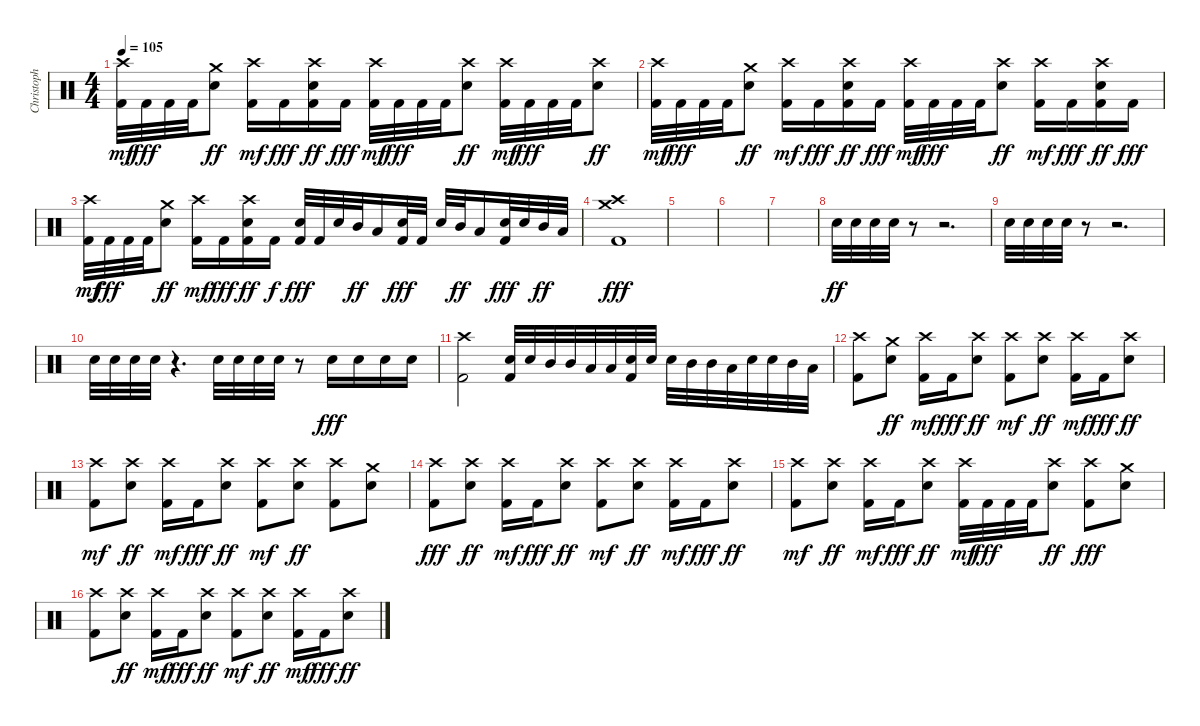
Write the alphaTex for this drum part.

\track ("Christoph \"Doom\" Schneider" "Christoph ") {instrument percussion}
\staff {score}
\articulation defaults
\ts (4 4)
\tempo 105
\clef neutral
\ks c
("Kick (hit) 2" "Crash high (hit)").32{dy mf} "Kick (hit) 2".32{dy fff} "Kick (hit) 2".32 "Kick (hit) 2".32 ("Crash medium (hit)" "Electric Snare (hit)").8{dy ff} ("Kick (hit) 2" "Crash high (hit)").16{dy mf} "Kick (hit) 2".16{dy fff} ("Kick (hit) 2" "Crash high (hit)" "Electric Snare (hit)").16{dy ff} "Kick (hit) 2".16{dy fff} ("Kick (hit) 2" "Crash high (hit)").32{dy mf} "Kick (hit) 2".32{dy fff} "Kick (hit) 2".32 "Kick (hit) 2".32 ("Crash high (hit)" "Electric Snare (hit)").8{dy ff} ("Kick (hit) 2" "Crash high (hit)").32{dy mf} "Kick (hit) 2".32{dy fff} "Kick (hit) 2".32 "Kick (hit) 2".32 ("Crash high (hit)" "Electric Snare (hit)").8{dy ff} |
("Kick (hit) 2" "Crash high (hit)").32{dy mf} "Kick (hit) 2".32{dy fff} "Kick (hit) 2".32 "Kick (hit) 2".32 ("Crash medium (hit)" "Electric Snare (hit)").8{dy ff} ("Kick (hit) 2" "Crash high (hit)").16{dy mf} "Kick (hit) 2".16{dy fff} ("Kick (hit) 2" "Crash high (hit)" "Electric Snare (hit)").16{dy ff} "Kick (hit) 2".16{dy fff} ("Kick (hit) 2" "Crash high (hit)").32{dy mf} "Kick (hit) 2".32{dy fff} "Kick (hit) 2".32 "Kick (hit) 2".32 ("Crash high (hit)" "Electric Snare (hit)").8{dy ff} ("Kick (hit) 2" "Crash high (hit)").16{dy mf} "Kick (hit) 2".16{dy fff} ("Kick (hit) 2" "Crash high (hit)" "Electric Snare (hit)").16{dy ff} "Kick (hit) 2".16{dy fff} |
("Kick (hit) 2" "Crash high (hit)").32{dy mf} "Kick (hit) 2".32{dy fff} "Kick (hit) 2".32 "Kick (hit) 2".32 ("Crash medium (hit)" "Electric Snare (hit)").8{dy ff} ("Kick (hit) 2" "Crash high (hit)").16{dy mf} "Kick (hit) 2".16{dy fff} ("Kick (hit) 2" "Crash high (hit)" "Electric Snare (hit)").16{dy ff} "Kick (hit) 2".16{dy f} ("Kick (hit) 2" "Electric Snare (hit)").32{dy fff} "Kick (hit) 2".32 "Electric Snare (hit)".32 "Mid Tom (hit)".32{dy ff} "Low Tom (hit)".16 ("Kick (hit) 2" "Electric Snare (hit)").32{dy fff} "Kick (hit) 2".32 "Electric Snare (hit)".32 "Mid Tom (hit)".32{dy ff} "Low Tom (hit)".16 ("Kick (hit) 2" "Electric Snare (hit)").32{dy fff} "Electric Snare (hit)".32 "Mid Tom (hit)".32{dy ff} "Low Tom (hit)".32 |
("Kick (hit) 2" "Crash medium (hit)" "Crash high (hit)").1{dy fff} |
|
|
|
"Electric Snare (hit)".32{dy ff} "Electric Snare (hit)".32 "Electric Snare (hit)".32 "Electric Snare (hit)".32 r.8 r.2{d} |
"Electric Snare (hit)".32 "Electric Snare (hit)".32 "Electric Snare (hit)".32 "Electric Snare (hit)".32 r.8 r.2{d} |
"Electric Snare (hit)".32 "Electric Snare (hit)".32 "Electric Snare (hit)".32 "Electric Snare (hit)".32 r.4{d} "Electric Snare (hit)".32 "Electric Snare (hit)".32 "Electric Snare (hit)".32 "Electric Snare (hit)".32 r.8 "Electric Snare (hit)".16{dy fff} "Electric Snare (hit)".16 "Electric Snare (hit)".16 "Electric Snare (hit)".16 |
("Kick (hit) 2" "Crash high (hit)").2 ("Kick (hit) 2" "Electric Snare (hit)").32{volume 14} "Electric Snare (hit)".32 "Mid Tom (hit)".32 "Mid Tom (hit)".32 "Low Tom (hit)".32 "Low Tom (hit)".32 ("Kick (hit) 2" "Electric Snare (hit)").32 "Electric Snare (hit)".32 "Electric Snare (hit)".32 "Mid Tom (hit)".32 "Mid Tom (hit)".32 "Low Tom (hit)".32 "Electric Snare (hit)".32 "Electric Snare (hit)".32 "Mid Tom (hit)".32 "Low Tom (hit)".32 |
("Kick (hit) 2" "Crash high (hit)").8{volume 12} ("Electric Snare (hit)" "Crash medium (hit)").8{dy ff} ("Kick (hit) 2" "Crash high (hit)").16{dy mf} "Kick (hit) 2".16{dy fff} ("Crash high (hit)" "Electric Snare (hit)").8{dy ff} ("Kick (hit) 2" "Crash high (hit)").8{dy mf} ("Crash high (hit)" "Electric Snare (hit)").8{dy ff} ("Kick (hit) 2" "Crash high (hit)").16{dy mf} "Kick (hit) 2".16{dy fff} ("Crash high (hit)" "Electric Snare (hit)").8{dy ff} |
("Kick (hit) 2" "Crash high (hit)").8{dy mf} ("Crash high (hit)" "Electric Snare (hit)").8{dy ff} ("Kick (hit) 2" "Crash high (hit)").16{dy mf} "Kick (hit) 2".16{dy fff} ("Crash high (hit)" "Electric Snare (hit)").8{dy ff} ("Kick (hit) 2" "Crash high (hit)").8{dy mf} ("Crash high (hit)" "Electric Snare (hit)").8{dy ff} ("Kick (hit) 2" "Crash high (hit)").8 ("Electric Snare (hit)" "Crash medium (hit)").8 |
("Kick (hit) 2" "Crash high (hit)").8{dy fff} ("Crash high (hit)" "Electric Snare (hit)").8{dy ff} ("Kick (hit) 2" "Crash high (hit)").16{dy mf} "Kick (hit) 2".16{dy fff} ("Crash high (hit)" "Electric Snare (hit)").8{dy ff} ("Kick (hit) 2" "Crash high (hit)").8{dy mf} ("Crash high (hit)" "Electric Snare (hit)").8{dy ff} ("Kick (hit) 2" "Crash high (hit)").16{dy mf} "Kick (hit) 2".16{dy fff} ("Crash high (hit)" "Electric Snare (hit)").8{dy ff} |
("Kick (hit) 2" "Crash high (hit)").8{dy mf} ("Crash high (hit)" "Electric Snare (hit)").8{dy ff} ("Kick (hit) 2" "Crash high (hit)").16{dy mf} "Kick (hit) 2".16{dy fff} ("Crash high (hit)" "Electric Snare (hit)").8{dy ff} ("Kick (hit) 2" "Crash high (hit)").32{dy mf} "Kick (hit) 2".32{dy fff} "Kick (hit) 2".32 "Kick (hit) 2".32 ("Crash high (hit)" "Electric Snare (hit)").8{dy ff} ("Kick (hit) 2" "Crash high (hit)").8{dy fff} ("Electric Snare (hit)" "Crash medium (hit)").8 |
("Kick (hit) 2" "Crash high (hit)").8 ("Crash high (hit)" "Electric Snare (hit)").8{dy ff} ("Kick (hit) 2" "Crash high (hit)").16{dy mf} "Kick (hit) 2".16{dy fff} ("Crash high (hit)" "Electric Snare (hit)").8{dy ff} ("Kick (hit) 2" "Crash high (hit)").8{dy mf} ("Crash high (hit)" "Electric Snare (hit)").8{dy ff} ("Kick (hit) 2" "Crash high (hit)").16{dy mf} "Kick (hit) 2".16{dy fff} ("Crash high (hit)" "Electric Snare (hit)").8{dy ff}
